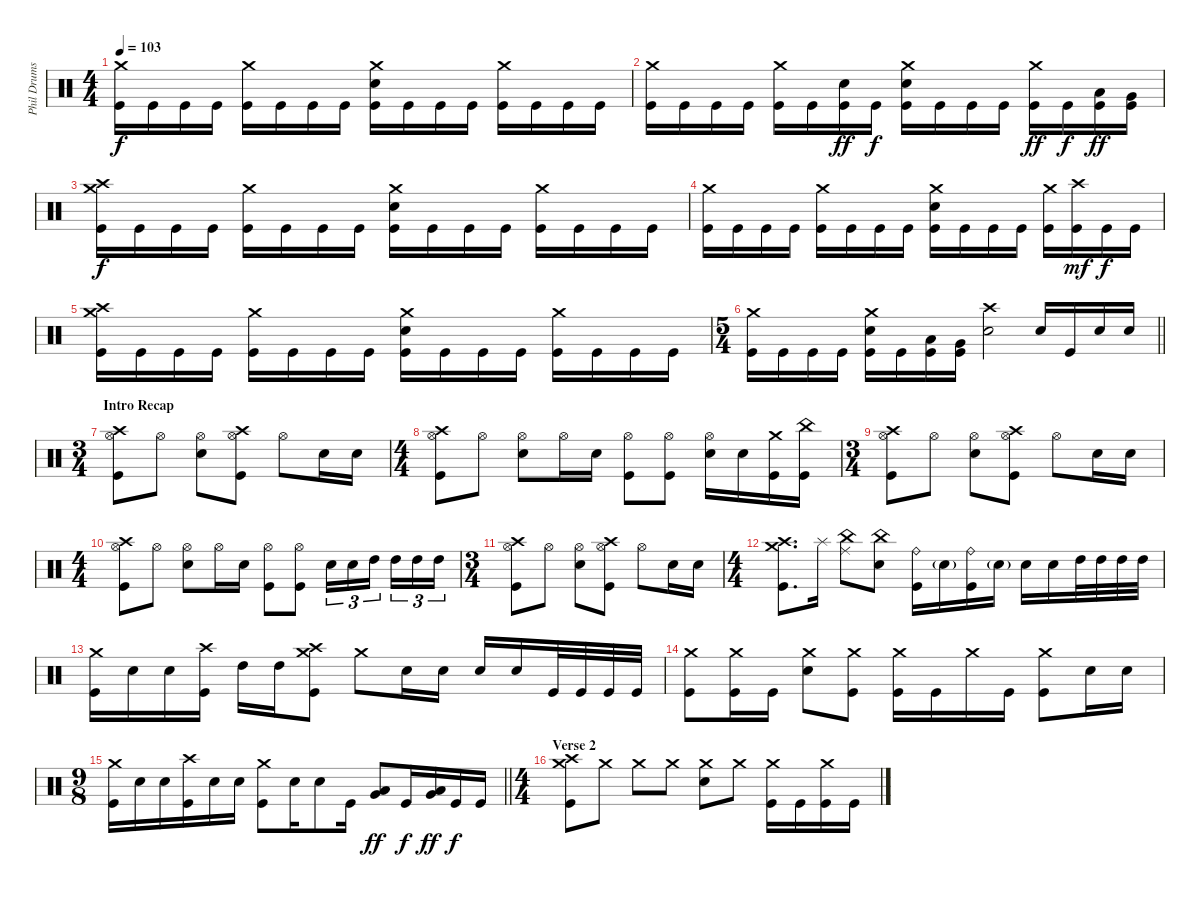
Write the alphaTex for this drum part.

\track ("Phil Drums" "Phil Drums") {instrument percussion}
\staff {score}
\articulation defaults
\ts (4 4)
\tempo 103
\clef neutral
\ks c
("Crash medium (hit)" "Kick (hit)").16{dy f} "Kick (hit)".16 "Kick (hit)".16 "Kick (hit)".16 ("Crash medium (hit)" "Kick (hit)").16 "Kick (hit)".16 "Kick (hit)".16 "Kick (hit)".16 ("Crash medium (hit)" "Snare (hit) 2" "Kick (hit)").16 "Kick (hit)".16 "Kick (hit)".16 "Kick (hit)".16 ("Crash medium (hit)" "Kick (hit)").16 "Kick (hit)".16 "Kick (hit)".16 "Kick (hit)".16 |
("Crash medium (hit)" "Kick (hit)").16 "Kick (hit)".16 "Kick (hit)".16 "Kick (hit)".16 ("Crash medium (hit)" "Kick (hit)").16 "Kick (hit)".16 ("Snare (hit) 2" "Kick (hit)").16{dy ff} "Kick (hit)".16{dy f} ("Crash medium (hit)" "Snare (hit) 2" "Kick (hit)").16 "Kick (hit)".16 "Kick (hit)".16 "Kick (hit)".16 ("Crash medium (hit)" "Kick (hit)").16{dy ff} "Kick (hit)".16{dy f} ("Low Tom (hit)" "Kick (hit)").16{dy ff} ("Very Low Tom (hit)" "Kick (hit)").16 |
("Crash medium (hit)" "Crash high (hit)" "Kick (hit)").16{dy f} "Kick (hit)".16 "Kick (hit)".16 "Kick (hit)".16 ("Crash medium (hit)" "Kick (hit)").16 "Kick (hit)".16 "Kick (hit)".16 "Kick (hit)".16 ("Crash medium (hit)" "Snare (hit) 2" "Kick (hit)").16 "Kick (hit)".16 "Kick (hit)".16 "Kick (hit)".16 ("Crash medium (hit)" "Kick (hit)").16 "Kick (hit)".16 "Kick (hit)".16 "Kick (hit)".16 |
("Crash medium (hit)" "Kick (hit)").16 "Kick (hit)".16 "Kick (hit)".16 "Kick (hit)".16 ("Crash medium (hit)" "Kick (hit)").16 "Kick (hit)".16 "Kick (hit)".16 "Kick (hit)".16 ("Crash medium (hit)" "Snare (hit) 2" "Kick (hit)").16 "Kick (hit)".16 "Kick (hit)".16 "Kick (hit)".16 ("Crash medium (hit)" "Kick (hit)").16 ("Crash high (hit)" "Kick (hit)").16{dy mf} "Kick (hit)".16{dy f} "Kick (hit)".16 |
("Crash medium (hit)" "Crash high (hit)" "Kick (hit)").16 "Kick (hit)".16 "Kick (hit)".16 "Kick (hit)".16 ("Crash medium (hit)" "Kick (hit)").16 "Kick (hit)".16 "Kick (hit)".16 "Kick (hit)".16 ("Crash medium (hit)" "Snare (hit) 2" "Kick (hit)").16 "Kick (hit)".16 "Kick (hit)".16 "Kick (hit)".16 ("Crash medium (hit)" "Kick (hit)").16 "Kick (hit)".16 "Kick (hit)".16 "Kick (hit)".16 |
\ts (5 4)
\barLineRight lightlight
("Crash medium (hit)" "Kick (hit)").16 "Kick (hit)".16 "Kick (hit)".16 "Kick (hit)".16 ("Crash medium (hit)" "Snare (hit) 2" "Kick (hit)").16 "Kick (hit)".16 ("Low Tom (hit)" "Kick (hit)").16 ("Very Low Tom (hit)" "Kick (hit)").16 ("Crash high (hit)" "Snare (hit) 2").2 "Snare (hit) 2".16 "Kick (hit)".16 "Snare (hit) 2".16 "Snare (hit) 2".16 |
\ts (3 4)
\section ("" "Intro Recap")
("Hi-Hat (open)" "Crash high (hit)" "Kick (hit)").8 "Hi-Hat (open)".8 ("Hi-Hat (open)" "Snare (hit) 2").8 ("Hi-Hat (open)" "Crash high (hit)" "Kick (hit)").8 "Hi-Hat (open)".8 "Snare (hit) 2".16 "Snare (hit) 2".16 |
\ts (4 4)
("Hi-Hat (open)" "Crash high (hit)" "Kick (hit)").8 "Hi-Hat (open)".8 ("Hi-Hat (open)" "Snare (hit) 2").8 "Hi-Hat (open)".16 "Snare (hit) 2".16 ("Hi-Hat (open)" "Kick (hit)").8 ("Hi-Hat (open)" "Kick (hit)").8 ("Hi-Hat (open)" "Snare (hit) 2").16 "Snare (hit) 2".16 ("Crash medium (hit)" "Kick (hit)").16 ("Kick (hit)" "China (hit)").16 |
\ts (3 4)
("Hi-Hat (open)" "Crash high (hit)" "Kick (hit)").8 "Hi-Hat (open)".8 ("Hi-Hat (open)" "Snare (hit) 2").8 ("Hi-Hat (open)" "Crash high (hit)" "Kick (hit)").8 "Hi-Hat (open)".8 "Snare (hit) 2".16 "Snare (hit) 2".16 |
\ts (4 4)
("Hi-Hat (open)" "Crash high (hit)" "Kick (hit)").8 "Hi-Hat (open)".8 ("Hi-Hat (open)" "Snare (hit) 2").8 "Hi-Hat (open)".16 "Snare (hit) 2".16 ("Hi-Hat (open)" "Kick (hit)").8 ("Hi-Hat (open)" "Kick (hit)").8 "Snare (hit) 2".16{tu (3 2)} "Snare (hit) 2".16{tu (3 2)} "High Tom (hit)".16{tu (3 2)} "High Tom (hit)".16{tu (3 2)} "High Tom (hit)".16{tu (3 2)} "High Tom (hit)".16{tu (3 2)} |
\ts (3 4)
("Hi-Hat (open)" "Crash high (hit)" "Kick (hit)").8 "Hi-Hat (open)".8 ("Hi-Hat (open)" "Snare (hit) 2").8 ("Hi-Hat (open)" "Crash high (hit)" "Kick (hit)").8 "Hi-Hat (open)".8 "Snare (hit) 2".16 "Snare (hit) 2".16 |
\ts (4 4)
("Crash medium (hit)" "Crash high (hit)" "Kick (hit)").8{d} "Splash (hit)".16 ("China (hit)" "Ride (middle)").8 ("China (hit)" "Snare (hit) 2").8 ("Ride (bell)" "Kick (hit)").16 "Snare (hit) 2"{g}.16 ("Ride (bell)" "Kick (hit)").16 "Snare (hit) 2"{g}.16 "Snare (hit) 2".16 "Snare (hit) 2".16 "High Tom (hit)".32 "High Tom (hit)".32 "High Tom (hit)".32 "High Tom (hit)".32 |
("Crash medium (hit)" "Kick (hit)").16 "Snare (hit) 2".16 "Snare (hit) 2".16 ("Crash high (hit)" "Kick (hit)").16 "High Tom (hit)".16 "High Tom (hit)".16 ("Crash medium (hit)" "Crash high (hit)" "Kick (hit)").8 "Crash medium (hit)".8 "Snare (hit) 2".16 "Snare (hit) 2".16 "Snare (hit) 2".16 "Snare (hit) 2".16 "Kick (hit)".32 "Kick (hit)".32 "Kick (hit)".32 "Kick (hit)".32 |
("Crash medium (hit)" "Kick (hit)").8 ("Crash medium (hit)" "Kick (hit)").16 "Kick (hit)".16 ("Crash medium (hit)" "Snare (hit) 2").8 ("Crash medium (hit)" "Kick (hit)").8 ("Crash medium (hit)" "Kick (hit)").16 "Kick (hit)".16 "Crash medium (hit)".16 "Kick (hit)".16 ("Crash medium (hit)" "Kick (hit)").8 "Snare (hit) 2".16 "Snare (hit) 2".16 |
\ts (9 8)
\barLineRight lightlight
("Crash medium (hit)" "Kick (hit)").16 "Snare (hit) 2".16 "Snare (hit) 2".16 ("Crash high (hit)" "Kick (hit)").16 "Snare (hit) 2".16 "Snare (hit) 2".16 ("Crash medium (hit)" "Kick (hit)").8 "Snare (hit) 2".16 "Snare (hit) 2".8 "Kick (hit)".16 ("Low Tom (hit)" "Very Low Tom (hit)").8{dy ff} "Kick (hit)".16{dy f} ("Very Low Tom (hit)" "Low Floor Tom (hit)").16{dy ff} "Kick (hit)".16{dy f} "Kick (hit)".16 |
\ts (4 4)
\section ("" "Verse 2")
("Crash medium (hit)" "Crash high (hit)" "Kick (hit)").8 "Crash medium (hit)".8 "Crash medium (hit)".8 "Crash medium (hit)".8 ("Crash medium (hit)" "Snare (hit) 2").8 "Crash medium (hit)".8 ("Crash medium (hit)" "Kick (hit)").16 "Kick (hit)".16 ("Crash medium (hit)" "Kick (hit)").16 "Kick (hit)".16
